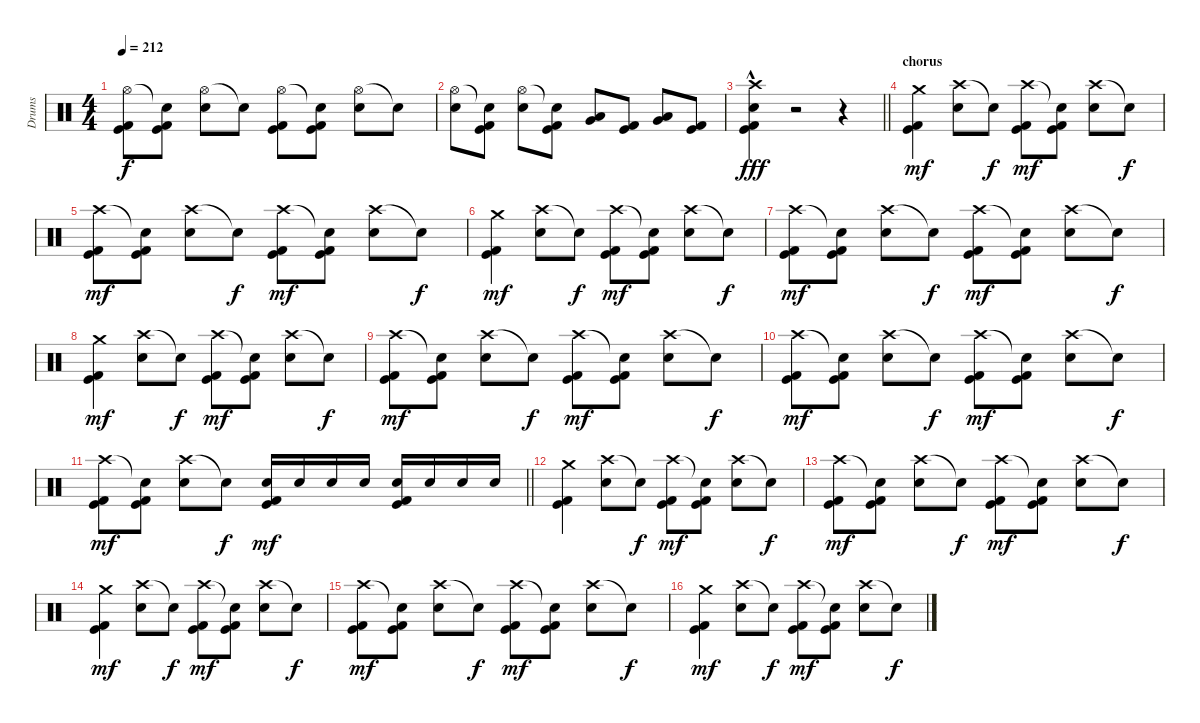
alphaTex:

\track ("Drums" "Drums") {instrument percussion}
\staff {score}
\articulation defaults
\ts (4 4)
\tempo 212
\clef neutral
\ks c
("Hi-Hat (open)" "Kick (hit)" "Kick (hit) 2").8{dy f} ("Snare (hit)"{t} "Kick (hit)" "Kick (hit) 2").8 ("Hi-Hat (open)" "Snare (hit) 2").8 "Snare (hit)"{t}.8 ("Hi-Hat (open)" "Kick (hit)" "Kick (hit) 2").8 ("Snare (hit)"{t} "Kick (hit)" "Kick (hit) 2").8 ("Hi-Hat (open)" "Snare (hit) 2").8 "Snare (hit)"{t}.8 |
("Hi-Hat (open)" "Snare (hit) 2").8 ("Snare (hit)"{t} "Kick (hit)" "Kick (hit) 2").8 ("Hi-Hat (open)" "Snare (hit) 2").8 ("Snare (hit)"{t} "Kick (hit)" "Kick (hit) 2").8 ("Very Low Tom (hit)" "Low Tom (hit)").8 ("Kick (hit)" "Kick (hit) 2").8 ("Very Low Tom (hit)" "Low Floor Tom (hit)").8 ("Kick (hit)" "Kick (hit) 2").8 |
\barLineRight lightlight
("Crash high (hit)" "Snare (hit) 2"{hac} "Kick (hit)" "Kick (hit) 2").4{dy fff} r.2 r.4 |
\section ("" "chorus")
("Crash medium (hit)" "Kick (hit)" "Kick (hit) 2").4{dy mf} ("Crash high (hit)" "Snare (hit) 2").8 "Snare (hit)"{t}.8{dy f} ("Crash high (hit)" "Kick (hit)" "Kick (hit) 2").8{dy mf} ("Snare (hit)"{t} "Kick (hit)" "Kick (hit) 2").8 ("Crash high (hit)" "Snare (hit) 2").8 "Snare (hit)"{t}.8{dy f} |
("Crash high (hit)" "Kick (hit)" "Kick (hit) 2").8{dy mf} ("Snare (hit)"{t} "Kick (hit)" "Kick (hit) 2").8 ("Crash high (hit)" "Snare (hit) 2").8 "Snare (hit)"{t}.8{dy f} ("Crash high (hit)" "Kick (hit)" "Kick (hit) 2").8{dy mf} ("Snare (hit)"{t} "Kick (hit)" "Kick (hit) 2").8 ("Crash high (hit)" "Snare (hit) 2").8 "Snare (hit)"{t}.8{dy f} |
("Crash medium (hit)" "Kick (hit)" "Kick (hit) 2").4{dy mf} ("Crash high (hit)" "Snare (hit) 2").8 "Snare (hit)"{t}.8{dy f} ("Crash high (hit)" "Kick (hit)" "Kick (hit) 2").8{dy mf} ("Snare (hit)"{t} "Kick (hit)" "Kick (hit) 2").8 ("Crash high (hit)" "Snare (hit) 2").8 "Snare (hit)"{t}.8{dy f} |
("Crash high (hit)" "Kick (hit)" "Kick (hit) 2").8{dy mf} ("Snare (hit)"{t} "Kick (hit)" "Kick (hit) 2").8 ("Crash high (hit)" "Snare (hit) 2").8 "Snare (hit)"{t}.8{dy f} ("Crash high (hit)" "Kick (hit)" "Kick (hit) 2").8{dy mf} ("Snare (hit)"{t} "Kick (hit)" "Kick (hit) 2").8 ("Crash high (hit)" "Snare (hit) 2").8 "Snare (hit)"{t}.8{dy f} |
("Crash medium (hit)" "Kick (hit)" "Kick (hit) 2").4{dy mf} ("Crash high (hit)" "Snare (hit) 2").8 "Snare (hit)"{t}.8{dy f} ("Crash high (hit)" "Kick (hit)" "Kick (hit) 2").8{dy mf} ("Snare (hit)"{t} "Kick (hit)" "Kick (hit) 2").8 ("Crash high (hit)" "Snare (hit) 2").8 "Snare (hit)"{t}.8{dy f} |
("Crash high (hit)" "Kick (hit)" "Kick (hit) 2").8{dy mf} ("Snare (hit)"{t} "Kick (hit)" "Kick (hit) 2").8 ("Crash high (hit)" "Snare (hit) 2").8 "Snare (hit)"{t}.8{dy f} ("Crash high (hit)" "Kick (hit)" "Kick (hit) 2").8{dy mf} ("Snare (hit)"{t} "Kick (hit)" "Kick (hit) 2").8 ("Crash high (hit)" "Snare (hit) 2").8 "Snare (hit)"{t}.8{dy f} |
("Crash high (hit)" "Kick (hit)" "Kick (hit) 2").8{dy mf} ("Snare (hit)"{t} "Kick (hit)" "Kick (hit) 2").8 ("Crash high (hit)" "Snare (hit) 2").8 "Snare (hit)"{t}.8{dy f} ("Crash high (hit)" "Kick (hit)" "Kick (hit) 2").8{dy mf} ("Snare (hit)"{t} "Kick (hit)" "Kick (hit) 2").8 ("Crash high (hit)" "Snare (hit) 2").8 "Snare (hit)"{t}.8{dy f} |
\barLineRight lightlight
("Crash high (hit)" "Kick (hit)" "Kick (hit) 2").8{dy mf} ("Snare (hit)"{t} "Kick (hit)" "Kick (hit) 2").8 ("Crash high (hit)" "Snare (hit) 2").8 "Snare (hit)"{t}.8{dy f} ("Snare (hit) 2" "Kick (hit)" "Kick (hit) 2").16{dy mf} "Snare (hit) 2".16 "Snare (hit) 2".16 "Snare (hit) 2".16 ("Snare (hit) 2" "Kick (hit)" "Kick (hit) 2").16 "Snare (hit) 2".16 "Snare (hit) 2".16 "Snare (hit) 2".16 |
("Crash medium (hit)" "Kick (hit)" "Kick (hit) 2").4 ("Crash high (hit)" "Snare (hit) 2").8 "Snare (hit)"{t}.8{dy f} ("Crash high (hit)" "Kick (hit)" "Kick (hit) 2").8{dy mf} ("Snare (hit)"{t} "Kick (hit)" "Kick (hit) 2").8 ("Crash high (hit)" "Snare (hit) 2").8 "Snare (hit)"{t}.8{dy f} |
("Crash high (hit)" "Kick (hit)" "Kick (hit) 2").8{dy mf} ("Snare (hit)"{t} "Kick (hit)" "Kick (hit) 2").8 ("Crash high (hit)" "Snare (hit) 2").8 "Snare (hit)"{t}.8{dy f} ("Crash high (hit)" "Kick (hit)" "Kick (hit) 2").8{dy mf} ("Snare (hit)"{t} "Kick (hit)" "Kick (hit) 2").8 ("Crash high (hit)" "Snare (hit) 2").8 "Snare (hit)"{t}.8{dy f} |
("Crash medium (hit)" "Kick (hit)" "Kick (hit) 2").4{dy mf} ("Crash high (hit)" "Snare (hit) 2").8 "Snare (hit)"{t}.8{dy f} ("Crash high (hit)" "Kick (hit)" "Kick (hit) 2").8{dy mf} ("Snare (hit)"{t} "Kick (hit)" "Kick (hit) 2").8 ("Crash high (hit)" "Snare (hit) 2").8 "Snare (hit)"{t}.8{dy f} |
("Crash high (hit)" "Kick (hit)" "Kick (hit) 2").8{dy mf} ("Snare (hit)"{t} "Kick (hit)" "Kick (hit) 2").8 ("Crash high (hit)" "Snare (hit) 2").8 "Snare (hit)"{t}.8{dy f} ("Crash high (hit)" "Kick (hit)" "Kick (hit) 2").8{dy mf} ("Snare (hit)"{t} "Kick (hit)" "Kick (hit) 2").8 ("Crash high (hit)" "Snare (hit) 2").8 "Snare (hit)"{t}.8{dy f} |
("Crash medium (hit)" "Kick (hit)" "Kick (hit) 2").4{dy mf} ("Crash high (hit)" "Snare (hit) 2").8 "Snare (hit)"{t}.8{dy f} ("Crash high (hit)" "Kick (hit)" "Kick (hit) 2").8{dy mf} ("Snare (hit)"{t} "Kick (hit)" "Kick (hit) 2").8 ("Crash high (hit)" "Snare (hit) 2").8 "Snare (hit)"{t}.8{dy f}
